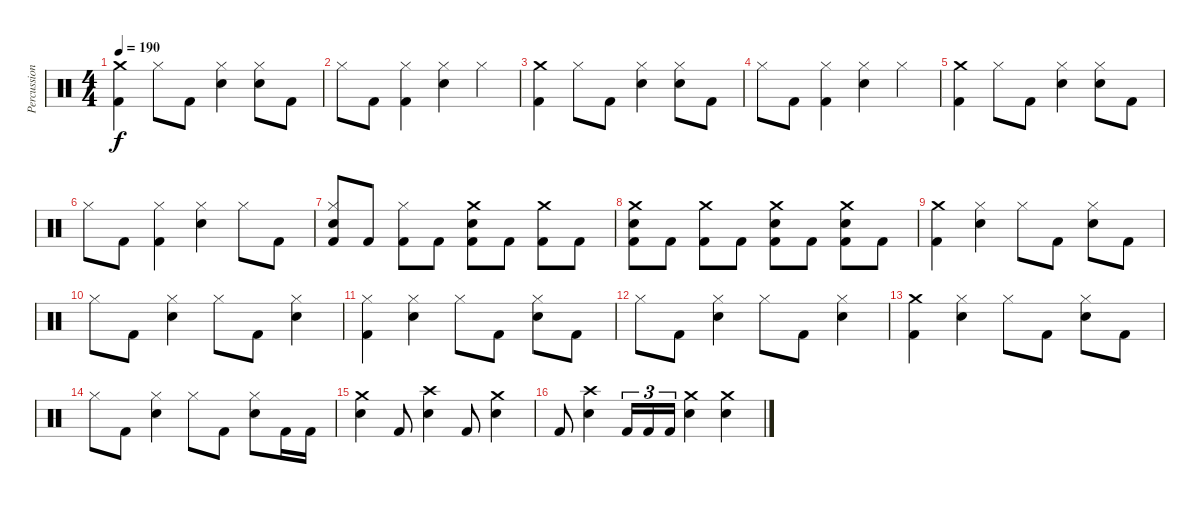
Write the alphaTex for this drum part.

\track ("Percussion" "Percussion") {instrument percussion}
\staff {score}
\articulation defaults
\ts (4 4)
\tempo 190
\clef neutral
\ks c
("Crash medium (hit)" "Kick (hit) 2").4{dy f} "Hi-Hat (closed)".8 "Kick (hit) 2".8 ("Hi-Hat (closed)" "Snare (hit) 2").4 ("Hi-Hat (closed)" "Snare (hit) 2").8 "Kick (hit) 2".8 |
"Hi-Hat (closed)".8 "Kick (hit) 2".8 ("Hi-Hat (closed)" "Kick (hit) 2").4 ("Hi-Hat (closed)" "Snare (hit) 2").4 "Hi-Hat (closed)".4 |
("Crash medium (hit)" "Kick (hit) 2").4 "Hi-Hat (closed)".8 "Kick (hit) 2".8 ("Hi-Hat (closed)" "Snare (hit) 2").4 ("Hi-Hat (closed)" "Snare (hit) 2").8 "Kick (hit) 2".8 |
"Hi-Hat (closed)".8 "Kick (hit) 2".8 ("Hi-Hat (closed)" "Kick (hit) 2").4 ("Hi-Hat (closed)" "Snare (hit) 2").4 "Hi-Hat (closed)".4 |
("Crash medium (hit)" "Kick (hit) 2").4 "Hi-Hat (closed)".8 "Kick (hit) 2".8 ("Hi-Hat (closed)" "Snare (hit) 2").4 ("Hi-Hat (closed)" "Snare (hit) 2").8 "Kick (hit) 2".8 |
"Hi-Hat (closed)".8 "Kick (hit) 2".8 ("Hi-Hat (closed)" "Kick (hit) 2").4 ("Hi-Hat (closed)" "Snare (hit) 2").4 "Hi-Hat (closed)".8 "Kick (hit) 2".8 |
("Hi-Hat (closed)" "Snare (hit) 2" "Kick (hit) 2").8 "Kick (hit) 2".8 ("Hi-Hat (closed)" "Kick (hit) 2").8 "Kick (hit) 2".8 ("Crash medium (hit)" "Snare (hit) 2" "Kick (hit) 2").8 "Kick (hit) 2".8 ("Crash medium (hit)" "Kick (hit) 2").8 "Kick (hit) 2".8 |
("Crash medium (hit)" "Snare (hit) 2" "Kick (hit) 2").8 "Kick (hit) 2".8 ("Crash medium (hit)" "Kick (hit) 2").8 "Kick (hit) 2".8 ("Crash medium (hit)" "Snare (hit) 2" "Kick (hit) 2").8 "Kick (hit) 2".8 ("Crash medium (hit)" "Snare (hit) 2" "Kick (hit) 2").8 "Kick (hit) 2".8 |
("Crash medium (hit)" "Kick (hit) 2").4 ("Hi-Hat (closed)" "Snare (hit) 2").4 "Hi-Hat (closed)".8 "Kick (hit) 2".8 ("Hi-Hat (closed)" "Snare (hit) 2").8 "Kick (hit) 2".8 |
"Hi-Hat (closed)".8 "Kick (hit) 2".8 ("Hi-Hat (closed)" "Snare (hit) 2").4 "Hi-Hat (closed)".8 "Kick (hit) 2".8 ("Hi-Hat (closed)" "Snare (hit) 2").4 |
("Hi-Hat (closed)" "Kick (hit) 2").4 ("Hi-Hat (closed)" "Snare (hit) 2").4 "Hi-Hat (closed)".8 "Kick (hit) 2".8 ("Hi-Hat (closed)" "Snare (hit) 2").8 "Kick (hit) 2".8 |
"Hi-Hat (closed)".8 "Kick (hit) 2".8 ("Hi-Hat (closed)" "Snare (hit) 2").4 "Hi-Hat (closed)".8 "Kick (hit) 2".8 ("Hi-Hat (closed)" "Snare (hit) 2").4 |
("Crash medium (hit)" "Kick (hit) 2").4 ("Hi-Hat (closed)" "Snare (hit) 2").4 "Hi-Hat (closed)".8 "Kick (hit) 2".8 ("Hi-Hat (closed)" "Snare (hit) 2").8 "Kick (hit) 2".8 |
"Hi-Hat (closed)".8 "Kick (hit) 2".8 ("Hi-Hat (closed)" "Snare (hit) 2").4 "Hi-Hat (closed)".8 "Kick (hit) 2".8 ("Hi-Hat (closed)" "Snare (hit) 2").8 "Kick (hit) 2".16 "Kick (hit) 2".16 |
("Crash medium (hit)" "Snare (hit) 2").4 "Kick (hit) 2".8 ("Crash high (hit)" "Snare (hit) 2").4 "Kick (hit) 2".8 ("Crash medium (hit)" "Snare (hit) 2").4 |
"Kick (hit) 2".8 ("Crash high (hit)" "Snare (hit) 2").4 "Kick (hit) 2".16{tu (3 2)} "Kick (hit) 2".16{tu (3 2)} "Kick (hit) 2".16{tu (3 2)} ("Crash medium (hit)" "Snare (hit) 2").4 ("Crash medium (hit)" "Snare (hit) 2").4
